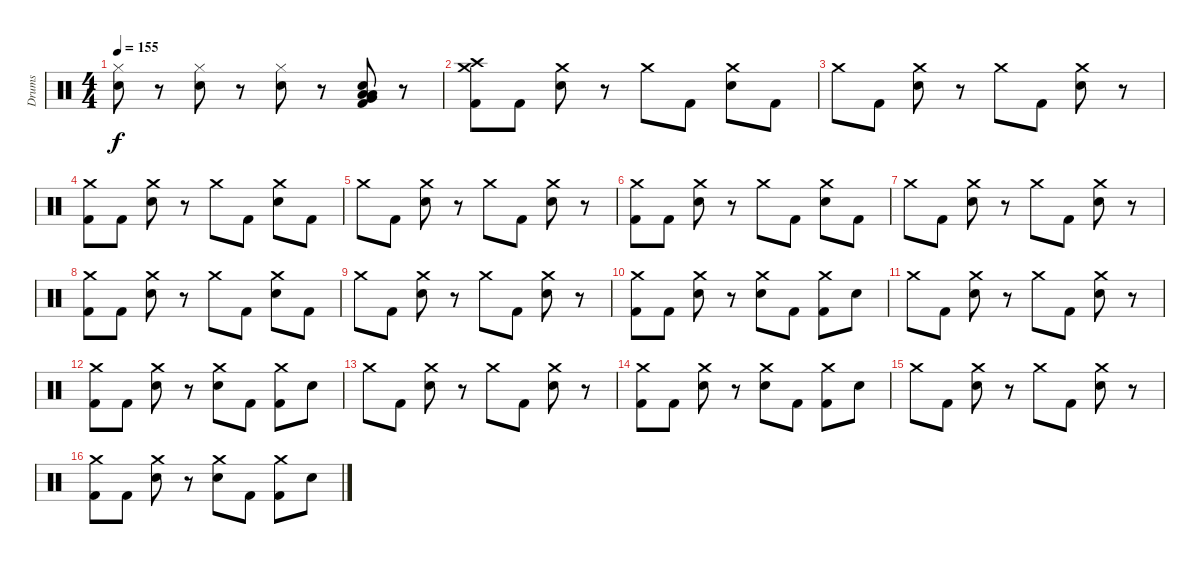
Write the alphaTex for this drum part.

\track ("Drums" "Drums") {instrument percussion}
\staff {score}
\articulation defaults
\ts (4 4)
\tempo 155
\clef neutral
\ks c
("Hi-Hat (closed)" "Electric Snare (hit)").8{dy f} r.8 ("Hi-Hat (closed)" "Electric Snare (hit)").8 r.8 ("Hi-Hat (closed)" "Electric Snare (hit)").8 r.8 ("Electric Snare (hit)" "Low Floor Tom (hit)" "Very Low Tom (hit)" "Low Floor Tom (hit)" "Kick (hit) 2").8 r.8 |
("Crash high (hit)" "Crash medium (hit)" "Kick (hit) 2").8 "Kick (hit) 2".8 ("Crash medium (hit)" "Electric Snare (hit)").8 r.8 "Crash medium (hit)".8 "Kick (hit) 2".8 ("Crash medium (hit)" "Electric Snare (hit)").8 "Kick (hit) 2".8 |
"Crash medium (hit)".8 "Kick (hit) 2".8 ("Crash medium (hit)" "Electric Snare (hit)").8 r.8 "Crash medium (hit)".8 "Kick (hit) 2".8 ("Crash medium (hit)" "Electric Snare (hit)").8 r.8 |
("Crash medium (hit)" "Kick (hit) 2").8 "Kick (hit) 2".8 ("Crash medium (hit)" "Electric Snare (hit)").8 r.8 "Crash medium (hit)".8 "Kick (hit) 2".8 ("Crash medium (hit)" "Electric Snare (hit)").8 "Kick (hit) 2".8 |
"Crash medium (hit)".8 "Kick (hit) 2".8 ("Crash medium (hit)" "Electric Snare (hit)").8 r.8 "Crash medium (hit)".8 "Kick (hit) 2".8 ("Crash medium (hit)" "Electric Snare (hit)").8 r.8 |
("Crash medium (hit)" "Kick (hit) 2").8 "Kick (hit) 2".8 ("Crash medium (hit)" "Electric Snare (hit)").8 r.8 "Crash medium (hit)".8 "Kick (hit) 2".8 ("Crash medium (hit)" "Electric Snare (hit)").8 "Kick (hit) 2".8 |
"Crash medium (hit)".8 "Kick (hit) 2".8 ("Crash medium (hit)" "Electric Snare (hit)").8 r.8 "Crash medium (hit)".8 "Kick (hit) 2".8 ("Crash medium (hit)" "Electric Snare (hit)").8 r.8 |
("Crash medium (hit)" "Kick (hit) 2").8 "Kick (hit) 2".8 ("Crash medium (hit)" "Electric Snare (hit)").8 r.8 "Crash medium (hit)".8 "Kick (hit) 2".8 ("Crash medium (hit)" "Electric Snare (hit)").8 "Kick (hit) 2".8 |
"Crash medium (hit)".8 "Kick (hit) 2".8 ("Crash medium (hit)" "Electric Snare (hit)").8 r.8 "Crash medium (hit)".8 "Kick (hit) 2".8 ("Crash medium (hit)" "Electric Snare (hit)").8 r.8 |
("Crash medium (hit)" "Kick (hit) 2").8 "Kick (hit) 2".8 ("Crash medium (hit)" "Electric Snare (hit)").8 r.8 ("Crash medium (hit)" "Electric Snare (hit)").8 "Kick (hit) 2".8 ("Crash medium (hit)" "Kick (hit) 2").8 "Electric Snare (hit)".8 |
"Crash medium (hit)".8 "Kick (hit) 2".8 ("Crash medium (hit)" "Electric Snare (hit)").8 r.8 "Crash medium (hit)".8 "Kick (hit) 2".8 ("Crash medium (hit)" "Electric Snare (hit)").8 r.8 |
("Crash medium (hit)" "Kick (hit) 2").8 "Kick (hit) 2".8 ("Crash medium (hit)" "Electric Snare (hit)").8 r.8 ("Crash medium (hit)" "Electric Snare (hit)").8 "Kick (hit) 2".8 ("Crash medium (hit)" "Kick (hit) 2").8 "Electric Snare (hit)".8 |
"Crash medium (hit)".8 "Kick (hit) 2".8 ("Crash medium (hit)" "Electric Snare (hit)").8 r.8 "Crash medium (hit)".8 "Kick (hit) 2".8 ("Crash medium (hit)" "Electric Snare (hit)").8 r.8 |
("Crash medium (hit)" "Kick (hit) 2").8 "Kick (hit) 2".8 ("Crash medium (hit)" "Electric Snare (hit)").8 r.8 ("Crash medium (hit)" "Electric Snare (hit)").8 "Kick (hit) 2".8 ("Crash medium (hit)" "Kick (hit) 2").8 "Electric Snare (hit)".8 |
"Crash medium (hit)".8 "Kick (hit) 2".8 ("Crash medium (hit)" "Electric Snare (hit)").8 r.8 "Crash medium (hit)".8 "Kick (hit) 2".8 ("Crash medium (hit)" "Electric Snare (hit)").8 r.8 |
("Crash medium (hit)" "Kick (hit) 2").8 "Kick (hit) 2".8 ("Crash medium (hit)" "Electric Snare (hit)").8 r.8 ("Crash medium (hit)" "Electric Snare (hit)").8 "Kick (hit) 2".8 ("Crash medium (hit)" "Kick (hit) 2").8 "Electric Snare (hit)".8
